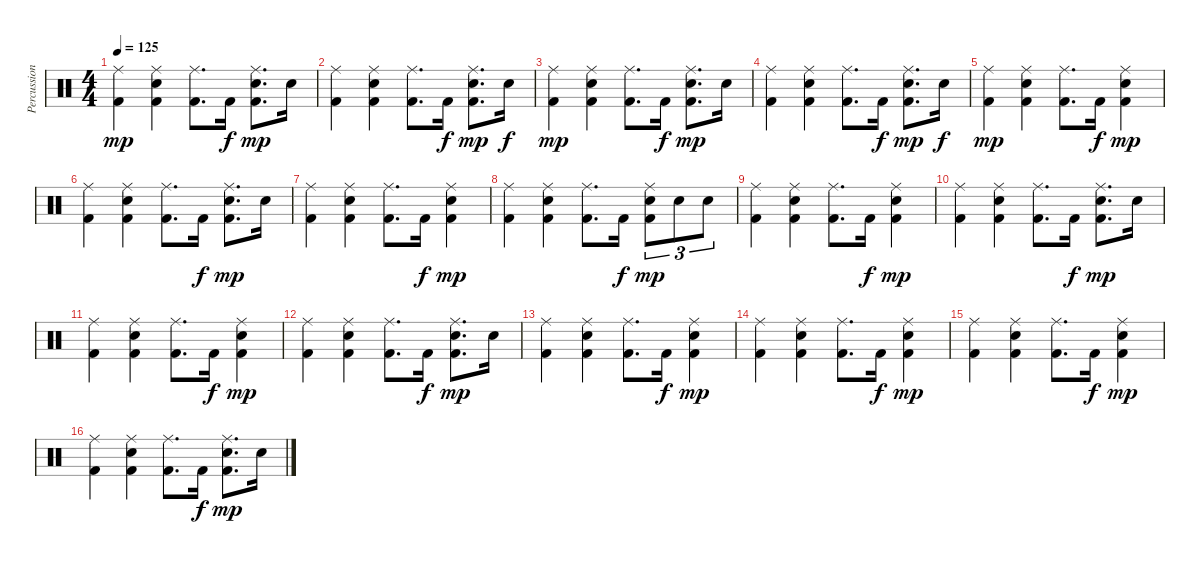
\track ("Percussions" "Percussion") {instrument percussion}
\staff {score}
\articulation defaults
\ts (4 4)
\tempo 125
\clef neutral
\ks c
("Ride (middle)" "Kick (hit) 2").4{dy mp} ("Ride (middle)" "Electric Snare (hit)" "Kick (hit) 2").4 ("Ride (middle)" "Kick (hit) 2").8{d} "Kick (hit) 2".16{dy f} ("Ride (middle)" "Electric Snare (hit)" "Kick (hit) 2").8{d dy mp} "Electric Snare (hit)".16 |
("Ride (middle)" "Kick (hit) 2").4 ("Ride (middle)" "Electric Snare (hit)" "Kick (hit) 2").4 ("Ride (middle)" "Kick (hit) 2").8{d} "Kick (hit) 2".16{dy f} ("Ride (middle)" "Electric Snare (hit)" "Kick (hit) 2").8{d dy mp} "Electric Snare (hit)".16{dy f} |
("Ride (middle)" "Kick (hit) 2").4{dy mp} ("Ride (middle)" "Electric Snare (hit)" "Kick (hit) 2").4 ("Ride (middle)" "Kick (hit) 2").8{d} "Kick (hit) 2".16{dy f} ("Ride (middle)" "Electric Snare (hit)" "Kick (hit) 2").8{d dy mp} "Electric Snare (hit)".16 |
("Ride (middle)" "Kick (hit) 2").4 ("Ride (middle)" "Electric Snare (hit)" "Kick (hit) 2").4 ("Ride (middle)" "Kick (hit) 2").8{d} "Kick (hit) 2".16{dy f} ("Ride (middle)" "Electric Snare (hit)" "Kick (hit) 2").8{d dy mp} "Electric Snare (hit)".16{dy f} |
("Ride (middle)" "Kick (hit) 2").4{dy mp} ("Ride (middle)" "Electric Snare (hit)" "Kick (hit) 2").4 ("Ride (middle)" "Kick (hit) 2").8{d} "Kick (hit) 2".16{dy f} ("Ride (middle)" "Electric Snare (hit)" "Kick (hit) 2").4{dy mp} |
("Ride (middle)" "Kick (hit) 2").4 ("Ride (middle)" "Electric Snare (hit)" "Kick (hit) 2").4 ("Ride (middle)" "Kick (hit) 2").8{d} "Kick (hit) 2".16{dy f} ("Ride (middle)" "Electric Snare (hit)" "Kick (hit) 2").8{d dy mp} "Electric Snare (hit)".16 |
("Ride (middle)" "Kick (hit) 2").4 ("Ride (middle)" "Electric Snare (hit)" "Kick (hit) 2").4 ("Ride (middle)" "Kick (hit) 2").8{d} "Kick (hit) 2".16{dy f} ("Ride (middle)" "Electric Snare (hit)" "Kick (hit) 2").4{dy mp} |
("Ride (middle)" "Kick (hit) 2").4 ("Ride (middle)" "Electric Snare (hit)" "Kick (hit) 2").4 ("Ride (middle)" "Kick (hit) 2").8{d} "Kick (hit) 2".16{dy f} ("Ride (middle)" "Electric Snare (hit)" "Kick (hit) 2").8{tu (3 2) dy mp} "Electric Snare (hit)".8{tu (3 2)} "Electric Snare (hit)".8{tu (3 2)} |
("Ride (middle)" "Kick (hit) 2").4 ("Ride (middle)" "Electric Snare (hit)" "Kick (hit) 2").4 ("Ride (middle)" "Kick (hit) 2").8{d} "Kick (hit) 2".16{dy f} ("Ride (middle)" "Electric Snare (hit)" "Kick (hit) 2").4{dy mp} |
("Ride (middle)" "Kick (hit) 2").4 ("Ride (middle)" "Electric Snare (hit)" "Kick (hit) 2").4 ("Ride (middle)" "Kick (hit) 2").8{d} "Kick (hit) 2".16{dy f} ("Ride (middle)" "Electric Snare (hit)" "Kick (hit) 2").8{d dy mp} "Electric Snare (hit)".16 |
("Ride (middle)" "Kick (hit) 2").4 ("Ride (middle)" "Electric Snare (hit)" "Kick (hit) 2").4 ("Ride (middle)" "Kick (hit) 2").8{d} "Kick (hit) 2".16{dy f} ("Ride (middle)" "Electric Snare (hit)" "Kick (hit) 2").4{dy mp} |
("Ride (middle)" "Kick (hit) 2").4 ("Ride (middle)" "Electric Snare (hit)" "Kick (hit) 2").4 ("Ride (middle)" "Kick (hit) 2").8{d} "Kick (hit) 2".16{dy f} ("Ride (middle)" "Electric Snare (hit)" "Kick (hit) 2").8{d dy mp} "Electric Snare (hit)".16 |
("Ride (middle)" "Kick (hit) 2").4 ("Ride (middle)" "Electric Snare (hit)" "Kick (hit) 2").4 ("Ride (middle)" "Kick (hit) 2").8{d} "Kick (hit) 2".16{dy f} ("Ride (middle)" "Electric Snare (hit)" "Kick (hit) 2").4{dy mp} |
("Ride (middle)" "Kick (hit) 2").4 ("Ride (middle)" "Electric Snare (hit)" "Kick (hit) 2").4 ("Ride (middle)" "Kick (hit) 2").8{d} "Kick (hit) 2".16{dy f} ("Ride (middle)" "Electric Snare (hit)" "Kick (hit) 2").4{dy mp} |
("Ride (middle)" "Kick (hit) 2").4 ("Ride (middle)" "Electric Snare (hit)" "Kick (hit) 2").4 ("Ride (middle)" "Kick (hit) 2").8{d} "Kick (hit) 2".16{dy f} ("Ride (middle)" "Electric Snare (hit)" "Kick (hit) 2").4{dy mp} |
("Ride (middle)" "Kick (hit) 2").4 ("Ride (middle)" "Electric Snare (hit)" "Kick (hit) 2").4 ("Ride (middle)" "Kick (hit) 2").8{d} "Kick (hit) 2".16{dy f} ("Ride (middle)" "Electric Snare (hit)" "Kick (hit) 2").8{d dy mp} "Electric Snare (hit)".16
